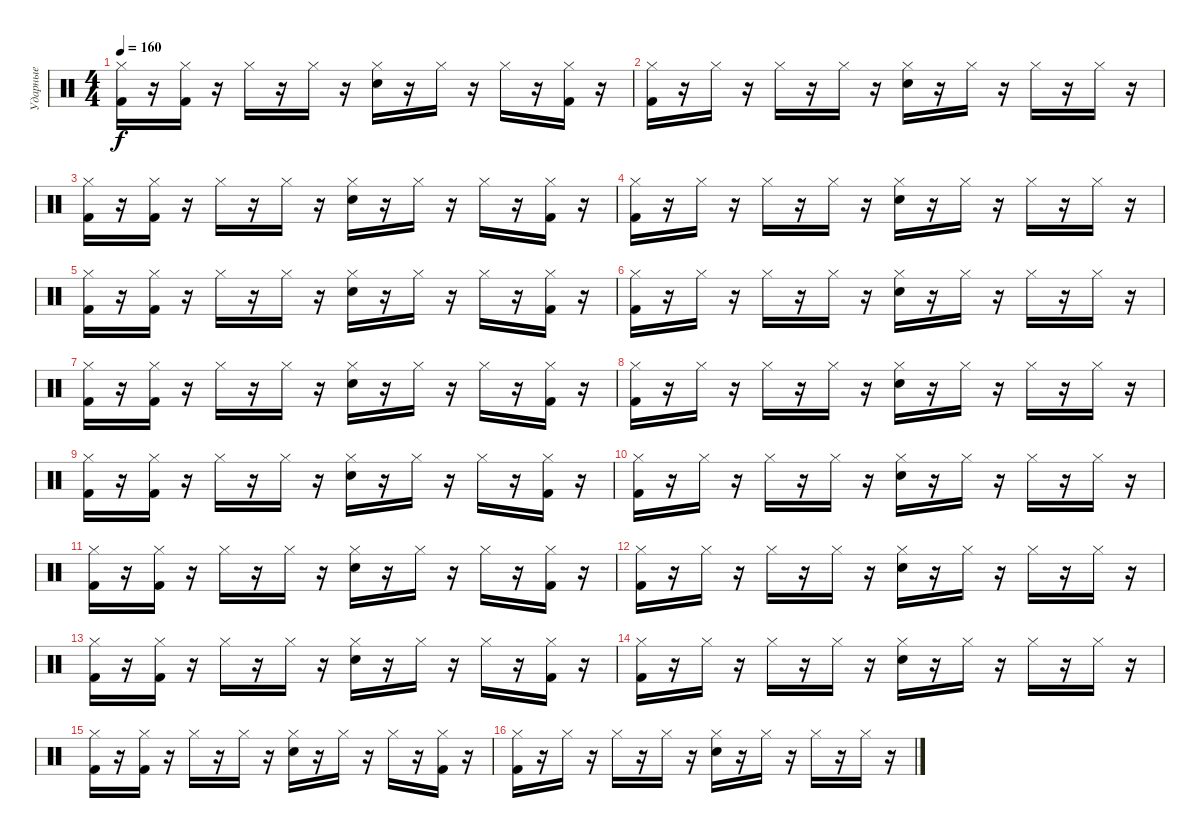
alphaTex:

\track ("Ударные" "Ударные") {instrument percussion}
\staff {score}
\articulation defaults
\ts (4 4)
\tempo 160
\clef neutral
\ks c
("Kick (hit) 2" "Hi-Hat (closed)").16{dy f} r.16 ("Kick (hit) 2" "Hi-Hat (closed)").16 r.16 "Hi-Hat (closed)".16 r.16 "Hi-Hat (closed)".16 r.16 ("Snare (hit) 2" "Hi-Hat (closed)").16 r.16 "Hi-Hat (closed)".16 r.16 "Hi-Hat (closed)".16 r.16 ("Kick (hit) 2" "Hi-Hat (closed)").16 r.16 |
("Kick (hit) 2" "Hi-Hat (closed)").16 r.16 "Hi-Hat (closed)".16 r.16 "Hi-Hat (closed)".16 r.16 "Hi-Hat (closed)".16 r.16 ("Snare (hit) 2" "Hi-Hat (closed)").16 r.16 "Hi-Hat (closed)".16 r.16 "Hi-Hat (closed)".16 r.16 "Hi-Hat (closed)".16 r.16 |
("Kick (hit) 2" "Hi-Hat (closed)").16 r.16 ("Kick (hit) 2" "Hi-Hat (closed)").16 r.16 "Hi-Hat (closed)".16 r.16 "Hi-Hat (closed)".16 r.16 ("Snare (hit) 2" "Hi-Hat (closed)").16 r.16 "Hi-Hat (closed)".16 r.16 "Hi-Hat (closed)".16 r.16 ("Kick (hit) 2" "Hi-Hat (closed)").16 r.16 |
("Kick (hit) 2" "Hi-Hat (closed)").16 r.16 "Hi-Hat (closed)".16 r.16 "Hi-Hat (closed)".16 r.16 "Hi-Hat (closed)".16 r.16 ("Snare (hit) 2" "Hi-Hat (closed)").16 r.16 "Hi-Hat (closed)".16 r.16 "Hi-Hat (closed)".16 r.16 "Hi-Hat (closed)".16 r.16 |
("Kick (hit) 2" "Hi-Hat (closed)").16 r.16 ("Kick (hit) 2" "Hi-Hat (closed)").16 r.16 "Hi-Hat (closed)".16 r.16 "Hi-Hat (closed)".16 r.16 ("Snare (hit) 2" "Hi-Hat (closed)").16 r.16 "Hi-Hat (closed)".16 r.16 "Hi-Hat (closed)".16 r.16 ("Kick (hit) 2" "Hi-Hat (closed)").16 r.16 |
("Kick (hit) 2" "Hi-Hat (closed)").16 r.16 "Hi-Hat (closed)".16 r.16 "Hi-Hat (closed)".16 r.16 "Hi-Hat (closed)".16 r.16 ("Snare (hit) 2" "Hi-Hat (closed)").16 r.16 "Hi-Hat (closed)".16 r.16 "Hi-Hat (closed)".16 r.16 "Hi-Hat (closed)".16 r.16 |
("Kick (hit) 2" "Hi-Hat (closed)").16 r.16 ("Kick (hit) 2" "Hi-Hat (closed)").16 r.16 "Hi-Hat (closed)".16 r.16 "Hi-Hat (closed)".16 r.16 ("Snare (hit) 2" "Hi-Hat (closed)").16 r.16 "Hi-Hat (closed)".16 r.16 "Hi-Hat (closed)".16 r.16 ("Kick (hit) 2" "Hi-Hat (closed)").16 r.16 |
("Kick (hit) 2" "Hi-Hat (closed)").16 r.16 "Hi-Hat (closed)".16 r.16 "Hi-Hat (closed)".16 r.16 "Hi-Hat (closed)".16 r.16 ("Snare (hit) 2" "Hi-Hat (closed)").16 r.16 "Hi-Hat (closed)".16 r.16 "Hi-Hat (closed)".16 r.16 "Hi-Hat (closed)".16 r.16 |
("Kick (hit) 2" "Hi-Hat (closed)").16 r.16 ("Kick (hit) 2" "Hi-Hat (closed)").16 r.16 "Hi-Hat (closed)".16 r.16 "Hi-Hat (closed)".16 r.16 ("Snare (hit) 2" "Hi-Hat (closed)").16 r.16 "Hi-Hat (closed)".16 r.16 "Hi-Hat (closed)".16 r.16 ("Kick (hit) 2" "Hi-Hat (closed)").16 r.16 |
("Kick (hit) 2" "Hi-Hat (closed)").16 r.16 "Hi-Hat (closed)".16 r.16 "Hi-Hat (closed)".16 r.16 "Hi-Hat (closed)".16 r.16 ("Snare (hit) 2" "Hi-Hat (closed)").16 r.16 "Hi-Hat (closed)".16 r.16 "Hi-Hat (closed)".16 r.16 "Hi-Hat (closed)".16 r.16 |
("Kick (hit) 2" "Hi-Hat (closed)").16 r.16 ("Kick (hit) 2" "Hi-Hat (closed)").16 r.16 "Hi-Hat (closed)".16 r.16 "Hi-Hat (closed)".16 r.16 ("Snare (hit) 2" "Hi-Hat (closed)").16 r.16 "Hi-Hat (closed)".16 r.16 "Hi-Hat (closed)".16 r.16 ("Kick (hit) 2" "Hi-Hat (closed)").16 r.16 |
("Kick (hit) 2" "Hi-Hat (closed)").16 r.16 "Hi-Hat (closed)".16 r.16 "Hi-Hat (closed)".16 r.16 "Hi-Hat (closed)".16 r.16 ("Snare (hit) 2" "Hi-Hat (closed)").16 r.16 "Hi-Hat (closed)".16 r.16 "Hi-Hat (closed)".16 r.16 "Hi-Hat (closed)".16 r.16 |
("Kick (hit) 2" "Hi-Hat (closed)").16 r.16 ("Kick (hit) 2" "Hi-Hat (closed)").16 r.16 "Hi-Hat (closed)".16 r.16 "Hi-Hat (closed)".16 r.16 ("Snare (hit) 2" "Hi-Hat (closed)").16 r.16 "Hi-Hat (closed)".16 r.16 "Hi-Hat (closed)".16 r.16 ("Kick (hit) 2" "Hi-Hat (closed)").16 r.16 |
("Kick (hit) 2" "Hi-Hat (closed)").16 r.16 "Hi-Hat (closed)".16 r.16 "Hi-Hat (closed)".16 r.16 "Hi-Hat (closed)".16 r.16 ("Snare (hit) 2" "Hi-Hat (closed)").16 r.16 "Hi-Hat (closed)".16 r.16 "Hi-Hat (closed)".16 r.16 "Hi-Hat (closed)".16 r.16 |
("Kick (hit) 2" "Hi-Hat (closed)").16 r.16 ("Kick (hit) 2" "Hi-Hat (closed)").16 r.16 "Hi-Hat (closed)".16 r.16 "Hi-Hat (closed)".16 r.16 ("Snare (hit) 2" "Hi-Hat (closed)").16 r.16 "Hi-Hat (closed)".16 r.16 "Hi-Hat (closed)".16 r.16 ("Kick (hit) 2" "Hi-Hat (closed)").16 r.16 |
("Kick (hit) 2" "Hi-Hat (closed)").16 r.16 "Hi-Hat (closed)".16 r.16 "Hi-Hat (closed)".16 r.16 "Hi-Hat (closed)".16 r.16 ("Snare (hit) 2" "Hi-Hat (closed)").16 r.16 "Hi-Hat (closed)".16 r.16 "Hi-Hat (closed)".16 r.16 "Hi-Hat (closed)".16 r.16
